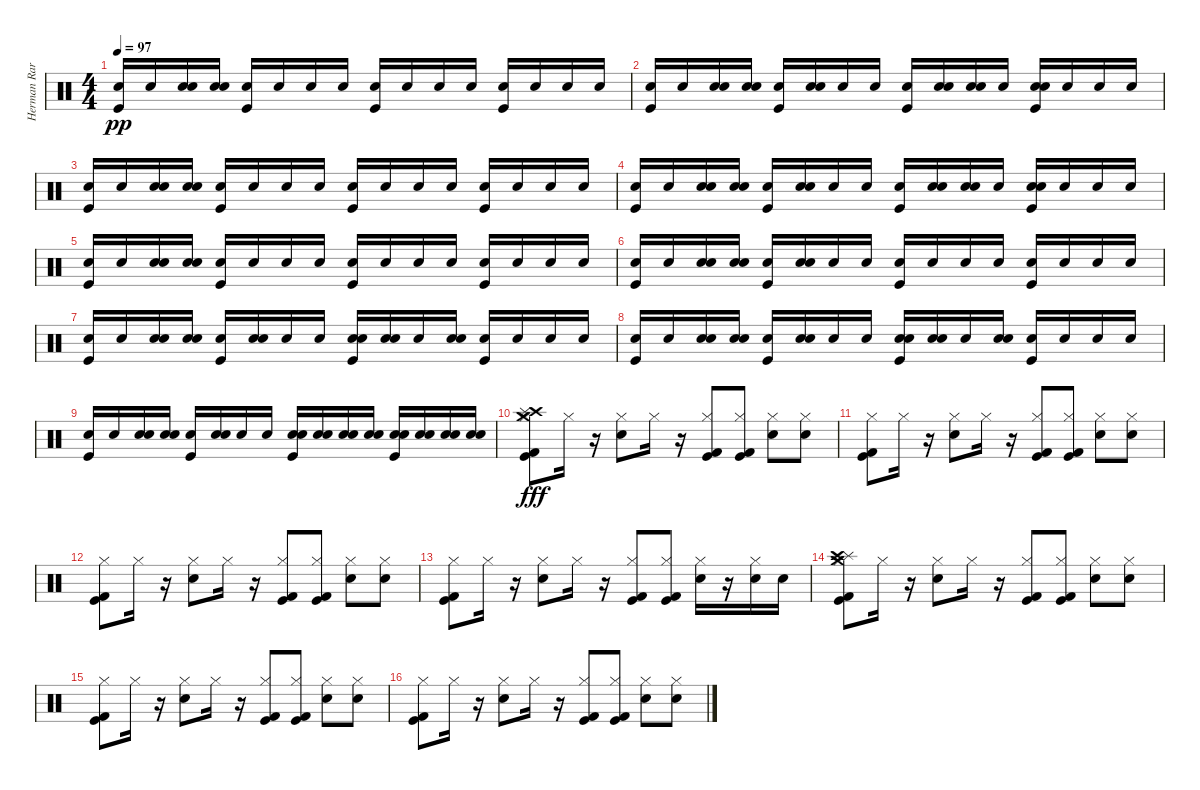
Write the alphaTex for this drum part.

\track ("Herman Rarebel" "Herman Rar") {instrument percussion}
\staff {score}
\articulation defaults
\ts (4 4)
\tempo 97
\clef neutral
\ks c
("Kick (hit)" "Snare (hit) 2").16{dy pp} "Snare (hit) 2".16 ("Electric Snare (hit)" "Snare (hit) 2").16 ("Electric Snare (hit)" "Snare (hit) 2").16 ("Kick (hit)" "Snare (hit) 2").16 "Snare (hit) 2".16 "Snare (hit) 2".16 "Snare (hit) 2".16 ("Kick (hit)" "Snare (hit) 2").16 "Snare (hit) 2".16 "Snare (hit) 2".16 "Snare (hit) 2".16 ("Kick (hit)" "Snare (hit) 2").16 "Snare (hit) 2".16 "Snare (hit) 2".16 "Snare (hit) 2".16 |
("Kick (hit)" "Snare (hit) 2").16 "Snare (hit) 2".16 ("Electric Snare (hit)" "Snare (hit) 2").16 ("Electric Snare (hit)" "Snare (hit) 2").16 ("Kick (hit)" "Snare (hit) 2").16 ("Electric Snare (hit)" "Snare (hit) 2").16 "Snare (hit) 2".16 "Snare (hit) 2".16 ("Kick (hit)" "Snare (hit) 2").16 ("Electric Snare (hit)" "Snare (hit) 2").16 ("Electric Snare (hit)" "Snare (hit) 2").16 "Snare (hit) 2".16 ("Kick (hit)" "Electric Snare (hit)" "Snare (hit) 2").16 "Snare (hit) 2".16 "Snare (hit) 2".16 "Snare (hit) 2".16 |
("Kick (hit)" "Snare (hit) 2").16 "Snare (hit) 2".16 ("Electric Snare (hit)" "Snare (hit) 2").16 ("Electric Snare (hit)" "Snare (hit) 2").16 ("Kick (hit)" "Snare (hit) 2").16 "Snare (hit) 2".16 "Snare (hit) 2".16 "Snare (hit) 2".16 ("Kick (hit)" "Snare (hit) 2").16 "Snare (hit) 2".16 "Snare (hit) 2".16 "Snare (hit) 2".16 ("Kick (hit)" "Snare (hit) 2").16 "Snare (hit) 2".16 "Snare (hit) 2".16 "Snare (hit) 2".16 |
("Kick (hit)" "Snare (hit) 2").16 "Snare (hit) 2".16 ("Electric Snare (hit)" "Snare (hit) 2").16 ("Electric Snare (hit)" "Snare (hit) 2").16 ("Kick (hit)" "Snare (hit) 2").16 ("Electric Snare (hit)" "Snare (hit) 2").16 "Snare (hit) 2".16 "Snare (hit) 2".16 ("Kick (hit)" "Snare (hit) 2").16 ("Electric Snare (hit)" "Snare (hit) 2").16 ("Electric Snare (hit)" "Snare (hit) 2").16 "Snare (hit) 2".16 ("Kick (hit)" "Electric Snare (hit)" "Snare (hit) 2").16 "Snare (hit) 2".16 "Snare (hit) 2".16 "Snare (hit) 2".16 |
("Kick (hit)" "Snare (hit) 2").16 "Snare (hit) 2".16 ("Electric Snare (hit)" "Snare (hit) 2").16 ("Electric Snare (hit)" "Snare (hit) 2").16 ("Kick (hit)" "Snare (hit) 2").16 "Snare (hit) 2".16 "Snare (hit) 2".16 "Snare (hit) 2".16 ("Kick (hit)" "Snare (hit) 2").16 "Snare (hit) 2".16 "Snare (hit) 2".16 "Snare (hit) 2".16 ("Kick (hit)" "Snare (hit) 2").16 "Snare (hit) 2".16 "Snare (hit) 2".16 "Snare (hit) 2".16 |
("Kick (hit)" "Snare (hit) 2").16 "Snare (hit) 2".16 ("Electric Snare (hit)" "Snare (hit) 2").16 ("Electric Snare (hit)" "Snare (hit) 2").16 ("Kick (hit)" "Snare (hit) 2").16 ("Electric Snare (hit)" "Snare (hit) 2").16 "Snare (hit) 2".16 "Snare (hit) 2".16 ("Kick (hit)" "Snare (hit) 2").16 "Snare (hit) 2".16 "Snare (hit) 2".16 "Snare (hit) 2".16 ("Kick (hit)" "Snare (hit) 2").16 "Snare (hit) 2".16 "Snare (hit) 2".16 "Snare (hit) 2".16 |
("Kick (hit)" "Snare (hit) 2").16 "Snare (hit) 2".16 ("Electric Snare (hit)" "Snare (hit) 2").16 ("Electric Snare (hit)" "Snare (hit) 2").16 ("Kick (hit)" "Snare (hit) 2").16 ("Electric Snare (hit)" "Snare (hit) 2").16 "Snare (hit) 2".16 "Snare (hit) 2".16 ("Kick (hit)" "Electric Snare (hit)" "Snare (hit) 2").16 ("Electric Snare (hit)" "Snare (hit) 2").16 "Snare (hit) 2".16 ("Electric Snare (hit)" "Snare (hit) 2").16 ("Kick (hit)" "Snare (hit) 2").16 "Snare (hit) 2".16 "Snare (hit) 2".16 "Snare (hit) 2".16 |
("Kick (hit)" "Snare (hit) 2").16 "Snare (hit) 2".16 ("Electric Snare (hit)" "Snare (hit) 2").16 ("Electric Snare (hit)" "Snare (hit) 2").16 ("Kick (hit)" "Snare (hit) 2").16 ("Electric Snare (hit)" "Snare (hit) 2").16 "Snare (hit) 2".16 "Snare (hit) 2".16 ("Kick (hit)" "Electric Snare (hit)" "Snare (hit) 2").16 ("Electric Snare (hit)" "Snare (hit) 2").16 "Snare (hit) 2".16 ("Electric Snare (hit)" "Snare (hit) 2").16 ("Kick (hit)" "Snare (hit) 2").16 "Snare (hit) 2".16 "Snare (hit) 2".16 "Snare (hit) 2".16 |
("Kick (hit)" "Snare (hit) 2").16 "Snare (hit) 2".16 ("Electric Snare (hit)" "Snare (hit) 2").16 ("Electric Snare (hit)" "Snare (hit) 2").16 ("Kick (hit)" "Snare (hit) 2").16 ("Electric Snare (hit)" "Snare (hit) 2").16 "Snare (hit) 2".16 "Snare (hit) 2".16 ("Kick (hit)" "Electric Snare (hit)" "Snare (hit) 2").16 ("Electric Snare (hit)" "Snare (hit) 2").16 ("Electric Snare (hit)" "Snare (hit) 2").16 ("Electric Snare (hit)" "Snare (hit) 2").16 ("Kick (hit)" "Electric Snare (hit)" "Snare (hit) 2").16 ("Electric Snare (hit)" "Snare (hit) 2").16 ("Electric Snare (hit)" "Snare (hit) 2").16 ("Electric Snare (hit)" "Snare (hit) 2").16 |
("Hi-Hat (closed)" "Crash high (hit)" "Splash (hit)" "Crash medium (hit)" "Kick (hit)" "Kick (hit) 2").8{dy fff} "Hi-Hat (closed)".16 r.16 ("Snare (hit) 2" "Hi-Hat (closed)").8 "Hi-Hat (closed)".16 r.16 ("Kick (hit) 2" "Kick (hit)" "Hi-Hat (closed)").8 ("Hi-Hat (closed)" "Kick (hit) 2" "Kick (hit)").8 ("Snare (hit) 2" "Hi-Hat (closed)").8 ("Hi-Hat (closed)" "Snare (hit) 2").8 |
("Kick (hit) 2" "Kick (hit)" "Hi-Hat (closed)").8 "Hi-Hat (closed)".16 r.16 ("Snare (hit) 2" "Hi-Hat (closed)").8 "Hi-Hat (closed)".16 r.16 ("Kick (hit) 2" "Kick (hit)" "Hi-Hat (closed)").8 ("Hi-Hat (closed)" "Kick (hit) 2" "Kick (hit)").8 ("Snare (hit) 2" "Hi-Hat (closed)").8 ("Hi-Hat (closed)" "Snare (hit) 2").8 |
("Kick (hit) 2" "Kick (hit)" "Hi-Hat (closed)").8 "Hi-Hat (closed)".16 r.16 ("Snare (hit) 2" "Hi-Hat (closed)").8 "Hi-Hat (closed)".16 r.16 ("Kick (hit) 2" "Kick (hit)" "Hi-Hat (closed)").8 ("Hi-Hat (closed)" "Kick (hit) 2" "Kick (hit)").8 ("Snare (hit) 2" "Hi-Hat (closed)").8 ("Hi-Hat (closed)" "Snare (hit) 2").8 |
("Kick (hit) 2" "Kick (hit)" "Hi-Hat (closed)").8 "Hi-Hat (closed)".16 r.16 ("Snare (hit) 2" "Hi-Hat (closed)").8 "Hi-Hat (closed)".16 r.16 ("Kick (hit) 2" "Kick (hit)" "Hi-Hat (closed)").8 ("Hi-Hat (closed)" "Kick (hit) 2" "Kick (hit)").8 ("Hi-Hat (closed)" "Snare (hit) 2").16 r.16 ("Hi-Hat (closed)" "Snare (hit) 2").16 "Snare (hit) 2".16 |
("Kick (hit) 2" "Kick (hit)" "Crash medium (hit)" "Splash (hit)" "Crash high (hit)" "Hi-Hat (closed)").8 "Hi-Hat (closed)".16 r.16 ("Snare (hit) 2" "Hi-Hat (closed)").8 "Hi-Hat (closed)".16 r.16 ("Kick (hit) 2" "Kick (hit)" "Hi-Hat (closed)").8 ("Hi-Hat (closed)" "Kick (hit) 2" "Kick (hit)").8 ("Snare (hit) 2" "Hi-Hat (closed)").8 ("Hi-Hat (closed)" "Snare (hit) 2").8 |
("Kick (hit) 2" "Kick (hit)" "Hi-Hat (closed)").8 "Hi-Hat (closed)".16 r.16 ("Snare (hit) 2" "Hi-Hat (closed)").8 "Hi-Hat (closed)".16 r.16 ("Kick (hit) 2" "Kick (hit)" "Hi-Hat (closed)").8 ("Hi-Hat (closed)" "Kick (hit) 2" "Kick (hit)").8 ("Snare (hit) 2" "Hi-Hat (closed)").8 ("Hi-Hat (closed)" "Snare (hit) 2").8 |
("Kick (hit) 2" "Kick (hit)" "Hi-Hat (closed)").8 "Hi-Hat (closed)".16 r.16 ("Snare (hit) 2" "Hi-Hat (closed)").8 "Hi-Hat (closed)".16 r.16 ("Kick (hit) 2" "Kick (hit)" "Hi-Hat (closed)").8 ("Hi-Hat (closed)" "Kick (hit) 2" "Kick (hit)").8 ("Snare (hit) 2" "Hi-Hat (closed)").8 ("Hi-Hat (closed)" "Snare (hit) 2").8
